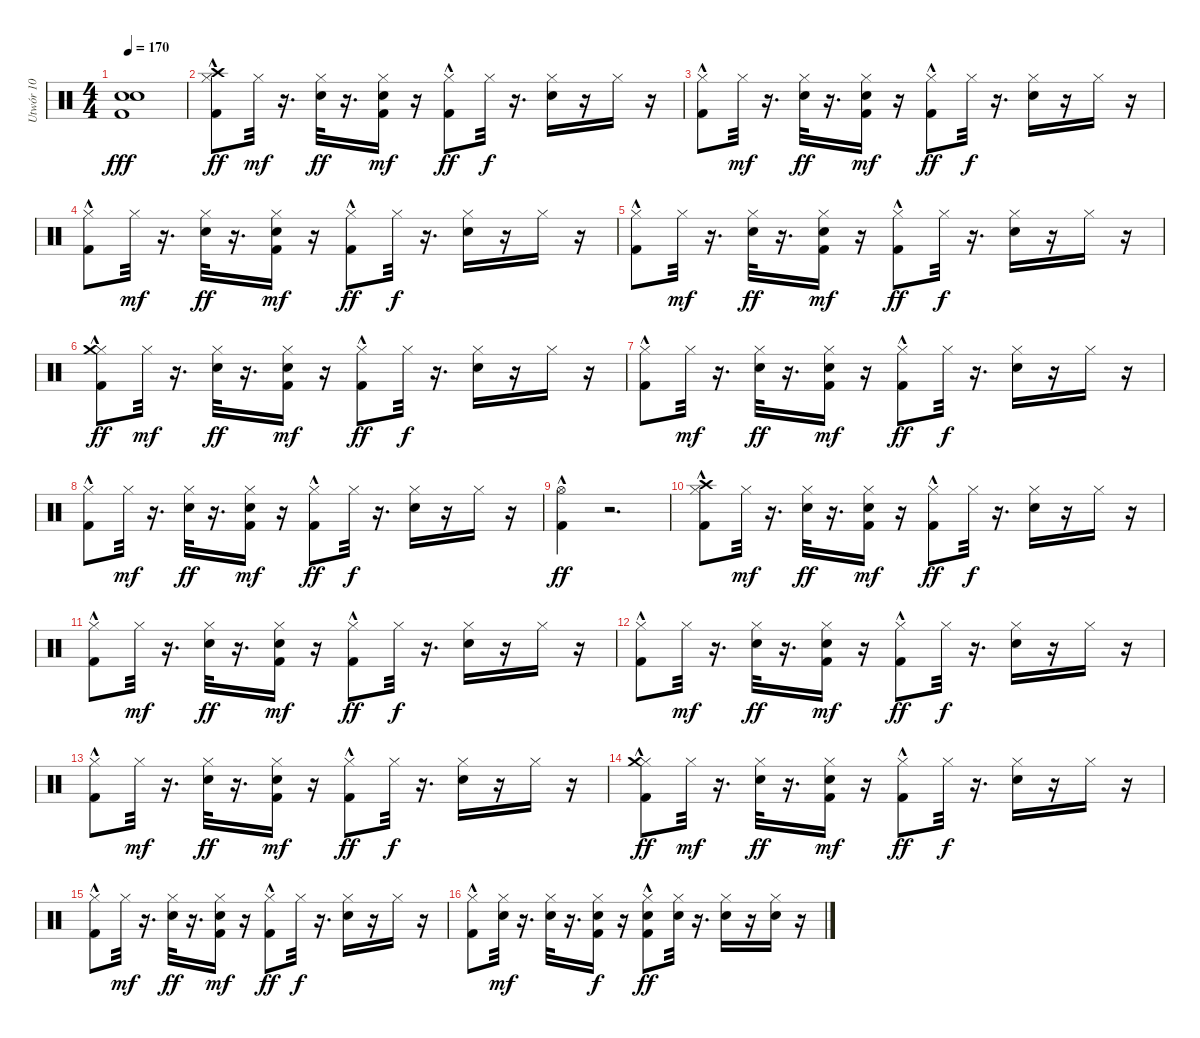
\track ("Utwór 10" "Utwór 10") {instrument percussion}
\staff {score}
\articulation defaults
\ts (4 4)
\tempo 170
\clef neutral
\ks c
("Snare (hit) 2" "Kick (hit) 2" "Snare (hit) 2").1{dy fff} |
("Hi-Hat (closed)" "Crash high (hit)" "Kick (hit) 2"{hac}).8{dy ff} "Hi-Hat (closed)".32{dy mf} r.16{d} ("Electric Snare (hit)" "Hi-Hat (closed)").32{dy ff} r.16{d} ("Hi-Hat (closed)" "Kick (hit) 2" "Electric Snare (hit)").16{dy mf} r.16 ("Hi-Hat (closed)" "Kick (hit) 2"{hac}).8{dy ff} "Hi-Hat (closed)".32{dy f} r.16{d} ("Hi-Hat (closed)" "Electric Snare (hit)").16 r.16 "Hi-Hat (closed)".16 r.16 |
("Hi-Hat (closed)" "Kick (hit) 2"{hac}).8 "Hi-Hat (closed)".32{dy mf} r.16{d} ("Electric Snare (hit)" "Hi-Hat (closed)").32{dy ff} r.16{d} ("Electric Snare (hit)" "Hi-Hat (closed)" "Kick (hit) 2").16{dy mf} r.16 ("Kick (hit) 2"{hac} "Hi-Hat (closed)").8{dy ff} "Hi-Hat (closed)".32{dy f} r.16{d} ("Hi-Hat (closed)" "Electric Snare (hit)").16 r.16 "Hi-Hat (closed)".16 r.16 |
("Hi-Hat (closed)" "Kick (hit) 2"{hac}).8 "Hi-Hat (closed)".32{dy mf} r.16{d} ("Hi-Hat (closed)" "Electric Snare (hit)").32{dy ff} r.16{d} ("Hi-Hat (closed)" "Kick (hit) 2" "Electric Snare (hit)").16{dy mf} r.16 ("Hi-Hat (closed)" "Kick (hit) 2"{hac}).8{dy ff} "Hi-Hat (closed)".32{dy f} r.16{d} ("Electric Snare (hit)" "Hi-Hat (closed)").16 r.16 "Hi-Hat (closed)".16 r.16 |
("Kick (hit) 2"{hac} "Hi-Hat (closed)").8 "Hi-Hat (closed)".32{dy mf} r.16{d} ("Hi-Hat (closed)" "Electric Snare (hit)").32{dy ff} r.16{d} ("Electric Snare (hit)" "Hi-Hat (closed)" "Kick (hit) 2").16{dy mf} r.16 ("Kick (hit) 2"{hac} "Hi-Hat (closed)").8{dy ff} "Hi-Hat (closed)".32{dy f} r.16{d} ("Hi-Hat (closed)" "Electric Snare (hit)").16 r.16 "Hi-Hat (closed)".16 r.16 |
("Hi-Hat (closed)" "Crash medium (hit)" "Kick (hit) 2"{hac}).8{dy ff} "Hi-Hat (closed)".32{dy mf} r.16{d} ("Electric Snare (hit)" "Hi-Hat (closed)").32{dy ff} r.16{d} ("Kick (hit) 2" "Hi-Hat (closed)" "Electric Snare (hit)").16{dy mf} r.16 ("Hi-Hat (closed)" "Kick (hit) 2"{hac}).8{dy ff} "Hi-Hat (closed)".32{dy f} r.16{d} ("Hi-Hat (closed)" "Electric Snare (hit)").16 r.16 "Hi-Hat (closed)".16 r.16 |
("Kick (hit) 2"{hac} "Hi-Hat (closed)").8 "Hi-Hat (closed)".32{dy mf} r.16{d} ("Electric Snare (hit)" "Hi-Hat (closed)").32{dy ff} r.16{d} ("Hi-Hat (closed)" "Electric Snare (hit)" "Kick (hit) 2").16{dy mf} r.16 ("Hi-Hat (closed)" "Kick (hit) 2"{hac}).8{dy ff} "Hi-Hat (closed)".32{dy f} r.16{d} ("Electric Snare (hit)" "Hi-Hat (closed)").16 r.16 "Hi-Hat (closed)".16 r.16 |
("Hi-Hat (closed)" "Kick (hit) 2"{hac}).8 "Hi-Hat (closed)".32{dy mf} r.16{d} ("Electric Snare (hit)" "Hi-Hat (closed)").32{dy ff} r.16{d} ("Electric Snare (hit)" "Hi-Hat (closed)" "Kick (hit) 2").16{dy mf} r.16 ("Kick (hit) 2"{hac} "Hi-Hat (closed)").8{dy ff} "Hi-Hat (closed)".32{dy f} r.16{d} ("Electric Snare (hit)" "Hi-Hat (closed)").16 r.16 "Hi-Hat (closed)".16 r.16 |
("Hi-Hat (open)" "Kick (hit) 2"{hac}).4{dy ff} r.2{d} |
("Kick (hit) 2"{hac} "Hi-Hat (closed)" "Crash high (hit)").8 "Hi-Hat (closed)".32{dy mf} r.16{d} ("Hi-Hat (closed)" "Electric Snare (hit)").32{dy ff} r.16{d} ("Electric Snare (hit)" "Hi-Hat (closed)" "Kick (hit) 2").16{dy mf} r.16 ("Hi-Hat (closed)" "Kick (hit) 2"{hac}).8{dy ff} "Hi-Hat (closed)".32{dy f} r.16{d} ("Electric Snare (hit)" "Hi-Hat (closed)").16 r.16 "Hi-Hat (closed)".16 r.16 |
("Kick (hit) 2"{hac} "Hi-Hat (closed)").8 "Hi-Hat (closed)".32{dy mf} r.16{d} ("Electric Snare (hit)" "Hi-Hat (closed)").32{dy ff} r.16{d} ("Electric Snare (hit)" "Kick (hit) 2" "Hi-Hat (closed)").16{dy mf} r.16 ("Kick (hit) 2"{hac} "Hi-Hat (closed)").8{dy ff} "Hi-Hat (closed)".32{dy f} r.16{d} ("Electric Snare (hit)" "Hi-Hat (closed)").16 r.16 "Hi-Hat (closed)".16 r.16 |
("Hi-Hat (closed)" "Kick (hit) 2"{hac}).8 "Hi-Hat (closed)".32{dy mf} r.16{d} ("Electric Snare (hit)" "Hi-Hat (closed)").32{dy ff} r.16{d} ("Hi-Hat (closed)" "Kick (hit) 2" "Electric Snare (hit)").16{dy mf} r.16 ("Hi-Hat (closed)" "Kick (hit) 2"{hac}).8{dy ff} "Hi-Hat (closed)".32{dy f} r.16{d} ("Hi-Hat (closed)" "Electric Snare (hit)").16 r.16 "Hi-Hat (closed)".16 r.16 |
("Hi-Hat (closed)" "Kick (hit) 2"{hac}).8 "Hi-Hat (closed)".32{dy mf} r.16{d} ("Electric Snare (hit)" "Hi-Hat (closed)").32{dy ff} r.16{d} ("Electric Snare (hit)" "Hi-Hat (closed)" "Kick (hit) 2").16{dy mf} r.16 ("Kick (hit) 2"{hac} "Hi-Hat (closed)").8{dy ff} "Hi-Hat (closed)".32{dy f} r.16{d} ("Electric Snare (hit)" "Hi-Hat (closed)").16 r.16 "Hi-Hat (closed)".16 r.16 |
("Hi-Hat (closed)" "Kick (hit) 2"{hac} "Crash medium (hit)").8{dy ff} "Hi-Hat (closed)".32{dy mf} r.16{d} ("Hi-Hat (closed)" "Electric Snare (hit)").32{dy ff} r.16{d} ("Electric Snare (hit)" "Hi-Hat (closed)" "Kick (hit) 2").16{dy mf} r.16 ("Hi-Hat (closed)" "Kick (hit) 2"{hac}).8{dy ff} "Hi-Hat (closed)".32{dy f} r.16{d} ("Electric Snare (hit)" "Hi-Hat (closed)").16 r.16 "Hi-Hat (closed)".16 r.16 |
("Kick (hit) 2"{hac} "Hi-Hat (closed)").8 "Hi-Hat (closed)".32{dy mf} r.16{d} ("Hi-Hat (closed)" "Electric Snare (hit)").32{dy ff} r.16{d} ("Electric Snare (hit)" "Kick (hit) 2" "Hi-Hat (closed)").16{dy mf} r.16 ("Kick (hit) 2"{hac} "Hi-Hat (closed)").8{dy ff} "Hi-Hat (closed)".32{dy f} r.16{d} ("Hi-Hat (closed)" "Electric Snare (hit)").16 r.16 "Hi-Hat (closed)".16 r.16 |
("Kick (hit) 2"{hac} "Hi-Hat (closed)").8 ("Electric Snare (hit)" "Hi-Hat (closed)").32{dy mf} r.16{d} ("Hi-Hat (closed)" "Electric Snare (hit)").32 r.16{d} ("Hi-Hat (closed)" "Kick (hit) 2" "Electric Snare (hit)").16{dy f} r.16 ("Kick (hit) 2"{hac} "Hi-Hat (closed)" "Electric Snare (hit)").8{dy ff} ("Hi-Hat (closed)" "Electric Snare (hit)").32 r.16{d} ("Hi-Hat (closed)" "Electric Snare (hit)").16 r.16 ("Hi-Hat (closed)" "Electric Snare (hit)").16 r.16
